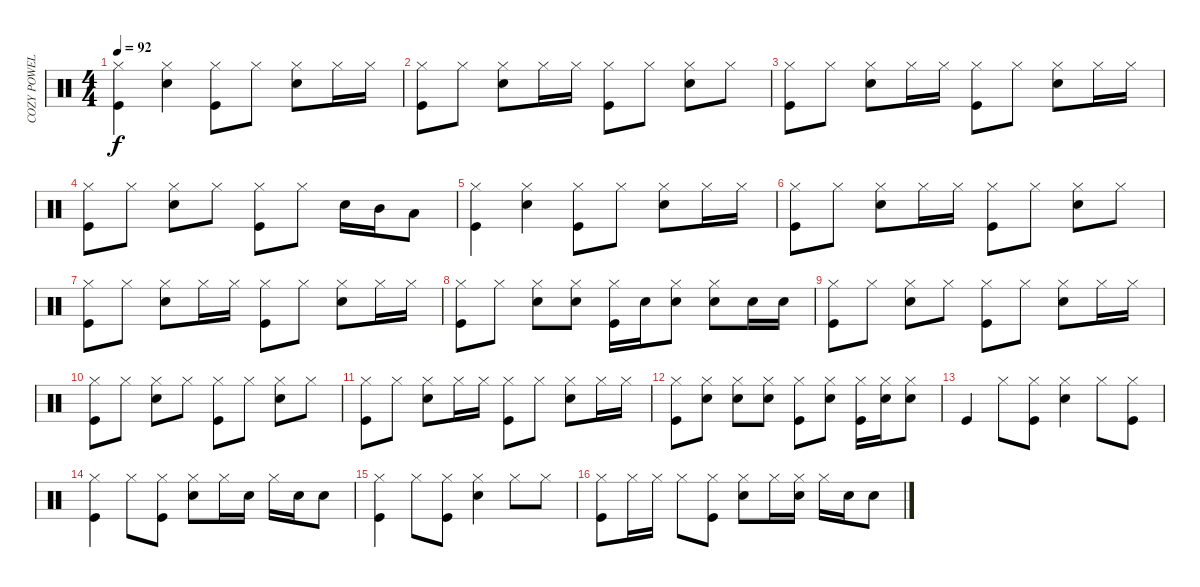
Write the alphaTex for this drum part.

\track ("COZY POWELL" "COZY POWEL") {instrument percussion}
\staff {score}
\articulation defaults
\ts (4 4)
\tempo 92
\clef neutral
\ks c
("Hi-Hat (closed)" "Kick (hit)").4{dy f} ("Hi-Hat (closed)" "Snare (hit) 2").4 ("Hi-Hat (closed)" "Kick (hit)").8 "Hi-Hat (closed)".8 ("Hi-Hat (closed)" "Snare (hit) 2").8 "Hi-Hat (closed)".16 "Hi-Hat (closed)".16 |
("Hi-Hat (closed)" "Kick (hit)").8 "Hi-Hat (closed)".8 ("Hi-Hat (closed)" "Snare (hit) 2").8 "Hi-Hat (closed)".16 "Hi-Hat (closed)".16 ("Hi-Hat (closed)" "Kick (hit)").8 "Hi-Hat (closed)".8 ("Hi-Hat (closed)" "Snare (hit) 2").8 "Hi-Hat (closed)".8 |
("Hi-Hat (closed)" "Kick (hit)").8 "Hi-Hat (closed)".8 ("Hi-Hat (closed)" "Snare (hit) 2").8 "Hi-Hat (closed)".16 "Hi-Hat (closed)".16 ("Hi-Hat (closed)" "Kick (hit)").8 "Hi-Hat (closed)".8 ("Hi-Hat (closed)" "Snare (hit) 2").8 "Hi-Hat (closed)".16 "Hi-Hat (closed)".16 |
("Hi-Hat (closed)" "Kick (hit)").8 "Hi-Hat (closed)".8 ("Hi-Hat (closed)" "Snare (hit) 2").8 "Hi-Hat (closed)".8 ("Hi-Hat (closed)" "Kick (hit)").8 "Hi-Hat (closed)".8 "Snare (hit) 2".16 "Mid Tom (hit)".16 "Low Tom (hit)".8 |
("Hi-Hat (closed)" "Kick (hit)").4 ("Hi-Hat (closed)" "Snare (hit) 2").4 ("Hi-Hat (closed)" "Kick (hit)").8 "Hi-Hat (closed)".8 ("Hi-Hat (closed)" "Snare (hit) 2").8 "Hi-Hat (closed)".16 "Hi-Hat (closed)".16 |
("Hi-Hat (closed)" "Kick (hit)").8 "Hi-Hat (closed)".8 ("Hi-Hat (closed)" "Snare (hit) 2").8 "Hi-Hat (closed)".16 "Hi-Hat (closed)".16 ("Hi-Hat (closed)" "Kick (hit)").8 "Hi-Hat (closed)".8 ("Hi-Hat (closed)" "Snare (hit) 2").8 "Hi-Hat (closed)".8 |
("Hi-Hat (closed)" "Kick (hit)").8 "Hi-Hat (closed)".8 ("Hi-Hat (closed)" "Snare (hit) 2").8 "Hi-Hat (closed)".16 "Hi-Hat (closed)".16 ("Hi-Hat (closed)" "Kick (hit)").8 "Hi-Hat (closed)".8 ("Hi-Hat (closed)" "Snare (hit) 2").8 "Hi-Hat (closed)".16 "Hi-Hat (closed)".16 |
("Hi-Hat (closed)" "Kick (hit)").8 "Hi-Hat (closed)".8 ("Hi-Hat (closed)" "Snare (hit) 2").8 ("Hi-Hat (closed)" "Snare (hit) 2").8 ("Hi-Hat (closed)" "Kick (hit)").16 "Snare (hit) 2".16 ("Hi-Hat (closed)" "Snare (hit) 2").8 ("Hi-Hat (closed)" "Snare (hit) 2").8 "Snare (hit) 2".16 "Snare (hit) 2".16 |
("Hi-Hat (closed)" "Kick (hit)").8 "Hi-Hat (closed)".8 ("Hi-Hat (closed)" "Snare (hit) 2").8 "Hi-Hat (closed)".8 ("Hi-Hat (closed)" "Kick (hit)").8 "Hi-Hat (closed)".8 ("Hi-Hat (closed)" "Snare (hit) 2").8 "Hi-Hat (closed)".16 "Hi-Hat (closed)".16 |
("Hi-Hat (closed)" "Kick (hit)").8 "Hi-Hat (closed)".8 ("Hi-Hat (closed)" "Snare (hit) 2").8 "Hi-Hat (closed)".8 ("Hi-Hat (closed)" "Kick (hit)").8 "Hi-Hat (closed)".8 ("Hi-Hat (closed)" "Snare (hit) 2").8 "Hi-Hat (closed)".8 |
("Hi-Hat (closed)" "Kick (hit)").8 "Hi-Hat (closed)".8 ("Hi-Hat (closed)" "Snare (hit) 2").8 "Hi-Hat (closed)".16 "Hi-Hat (closed)".16 ("Hi-Hat (closed)" "Kick (hit)").8 "Hi-Hat (closed)".8 ("Hi-Hat (closed)" "Snare (hit) 2").8 "Hi-Hat (closed)".16 "Hi-Hat (closed)".16 |
("Hi-Hat (closed)" "Kick (hit)").8 ("Hi-Hat (closed)" "Snare (hit) 2").8 ("Hi-Hat (closed)" "Snare (hit) 2").8 ("Hi-Hat (closed)" "Snare (hit) 2").8 ("Hi-Hat (closed)" "Kick (hit)").8 ("Hi-Hat (closed)" "Snare (hit) 2").8 ("Hi-Hat (closed)" "Kick (hit)").16 ("Hi-Hat (closed)" "Snare (hit) 2").16 ("Hi-Hat (closed)" "Snare (hit) 2").8 |
"Kick (hit)".4 "Hi-Hat (closed)".8 ("Hi-Hat (closed)" "Kick (hit)").8 ("Hi-Hat (closed)" "Snare (hit) 2").4 "Hi-Hat (closed)".8 ("Hi-Hat (closed)" "Kick (hit)").8 |
("Hi-Hat (closed)" "Kick (hit)").4 "Hi-Hat (closed)".8 ("Hi-Hat (closed)" "Kick (hit)").8 ("Hi-Hat (closed)" "Snare (hit) 2").8 "Hi-Hat (closed)".16 "Snare (hit) 2".16 "Hi-Hat (closed)".16 "Snare (hit) 2".16 "Snare (hit) 2".8 |
("Hi-Hat (closed)" "Kick (hit)").4 "Hi-Hat (closed)".8 ("Hi-Hat (closed)" "Kick (hit)").8 ("Hi-Hat (closed)" "Snare (hit) 2").4 "Hi-Hat (closed)".8 "Hi-Hat (closed)".8 |
("Hi-Hat (closed)" "Kick (hit)").8 "Hi-Hat (closed)".16 "Hi-Hat (closed)".16 "Hi-Hat (closed)".8 ("Hi-Hat (closed)" "Kick (hit)").8 ("Hi-Hat (closed)" "Snare (hit) 2").8 "Hi-Hat (closed)".16 ("Hi-Hat (closed)" "Snare (hit) 2").16 "Hi-Hat (closed)".16 "Snare (hit) 2".16 "Snare (hit) 2".8
